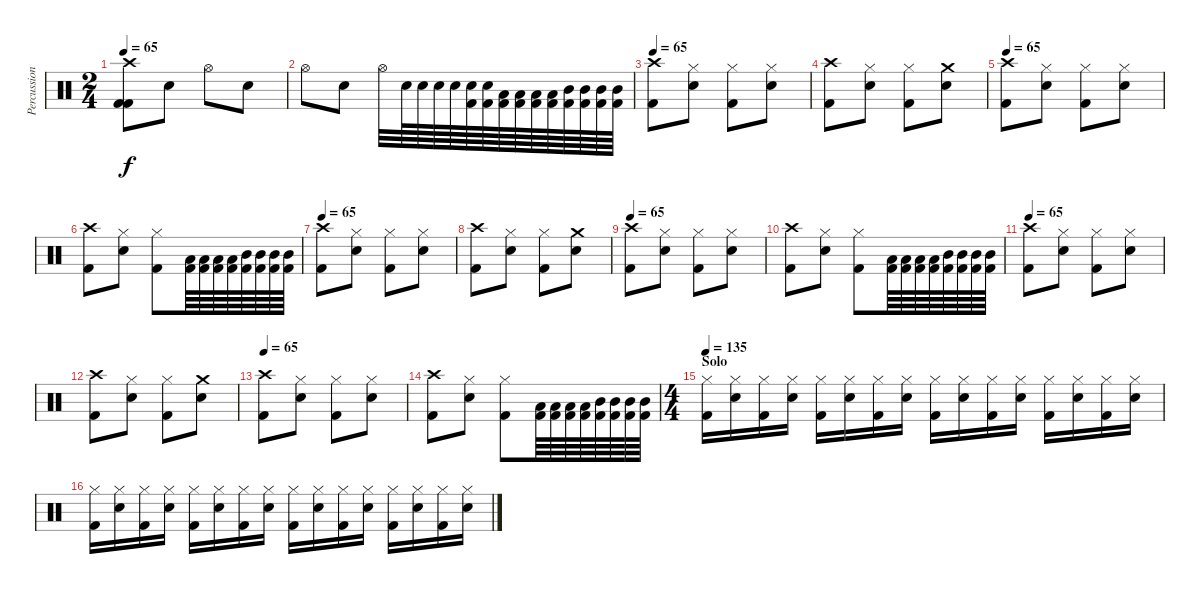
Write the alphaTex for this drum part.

\track ("Percussion" "Percussion") {instrument percussion}
\staff {score}
\articulation defaults
\ts (2 4)
\tempo 65
\clef neutral
\ks c
("Crash high (hit)" "Kick (hit) 2" "Kick (hit) 2").8{dy f} "Snare (hit)"{x}.8 "Hi-Hat (open)".8 "Snare (hit)"{x}.8 |
"Hi-Hat (open)".8 "Snare (hit)"{x}.8 "Hi-Hat (open)".32 "Snare (hit)"{x}.64 "Snare (hit)"{x}.64 "Snare (hit)"{x}.64 "Snare (hit)"{x}.64 ("Electric Snare (hit)" "Kick (hit) 2").64 ("Electric Snare (hit)" "Kick (hit) 2").64 ("Low Tom (hit)" "Kick (hit) 2").64 ("Low Tom (hit)" "Kick (hit) 2").64 ("Low Tom (hit)" "Kick (hit) 2").64 ("Low Tom (hit)" "Kick (hit) 2").64 ("Mid Tom (hit)" "Kick (hit) 2").64 ("Mid Tom (hit)" "Kick (hit) 2").64 ("Mid Tom (hit)" "Kick (hit) 2").64 ("Mid Tom (hit)" "Kick (hit) 2").64 |
\tempo 65
("Crash high (hit)" "Kick (hit) 2").8 ("Hi-Hat (closed)" "Electric Snare (hit)").8 ("Hi-Hat (closed)" "Kick (hit) 2").8 ("Hi-Hat (closed)" "Electric Snare (hit)").8 |
("Crash high (hit)" "Kick (hit) 2").8 ("Hi-Hat (closed)" "Electric Snare (hit)").8 ("Hi-Hat (closed)" "Kick (hit) 2").8 ("Crash medium (hit)" "Electric Snare (hit)").8 |
\tempo 65
("Crash high (hit)" "Kick (hit) 2").8 ("Hi-Hat (closed)" "Electric Snare (hit)").8 ("Hi-Hat (closed)" "Kick (hit) 2").8 ("Hi-Hat (closed)" "Electric Snare (hit)").8 |
("Crash high (hit)" "Kick (hit) 2").8 ("Hi-Hat (closed)" "Electric Snare (hit)").8 ("Hi-Hat (closed)" "Kick (hit) 2").8 ("Low Tom (hit)" "Kick (hit) 2").64 ("Low Tom (hit)" "Kick (hit) 2").64 ("Low Tom (hit)" "Kick (hit) 2").64 ("Low Tom (hit)" "Kick (hit) 2").64 ("Mid Tom (hit)" "Kick (hit) 2").64 ("Mid Tom (hit)" "Kick (hit) 2").64 ("Mid Tom (hit)" "Kick (hit) 2").64 ("Mid Tom (hit)" "Kick (hit) 2").64 |
\tempo 65
("Crash high (hit)" "Kick (hit) 2").8 ("Hi-Hat (closed)" "Electric Snare (hit)").8 ("Hi-Hat (closed)" "Kick (hit) 2").8 ("Hi-Hat (closed)" "Electric Snare (hit)").8 |
("Crash high (hit)" "Kick (hit) 2").8 ("Hi-Hat (closed)" "Electric Snare (hit)").8 ("Hi-Hat (closed)" "Kick (hit) 2").8 ("Crash medium (hit)" "Electric Snare (hit)").8 |
\tempo 65
("Crash high (hit)" "Kick (hit) 2").8 ("Hi-Hat (closed)" "Electric Snare (hit)").8 ("Hi-Hat (closed)" "Kick (hit) 2").8 ("Hi-Hat (closed)" "Electric Snare (hit)").8 |
("Crash high (hit)" "Kick (hit) 2").8 ("Hi-Hat (closed)" "Electric Snare (hit)").8 ("Hi-Hat (closed)" "Kick (hit) 2").8 ("Low Tom (hit)" "Kick (hit) 2").64 ("Low Tom (hit)" "Kick (hit) 2").64 ("Low Tom (hit)" "Kick (hit) 2").64 ("Low Tom (hit)" "Kick (hit) 2").64 ("Mid Tom (hit)" "Kick (hit) 2").64 ("Mid Tom (hit)" "Kick (hit) 2").64 ("Mid Tom (hit)" "Kick (hit) 2").64 ("Mid Tom (hit)" "Kick (hit) 2").64 |
\tempo 65
("Crash high (hit)" "Kick (hit) 2").8 ("Hi-Hat (closed)" "Electric Snare (hit)").8 ("Hi-Hat (closed)" "Kick (hit) 2").8 ("Hi-Hat (closed)" "Electric Snare (hit)").8 |
("Crash high (hit)" "Kick (hit) 2").8 ("Hi-Hat (closed)" "Electric Snare (hit)").8 ("Hi-Hat (closed)" "Kick (hit) 2").8 ("Crash medium (hit)" "Electric Snare (hit)").8 |
\tempo 65
("Crash high (hit)" "Kick (hit) 2").8 ("Hi-Hat (closed)" "Electric Snare (hit)").8 ("Hi-Hat (closed)" "Kick (hit) 2").8 ("Hi-Hat (closed)" "Electric Snare (hit)").8 |
("Crash high (hit)" "Kick (hit) 2").8 ("Hi-Hat (closed)" "Electric Snare (hit)").8 ("Hi-Hat (closed)" "Kick (hit) 2").8 ("Low Tom (hit)" "Kick (hit) 2").64 ("Low Tom (hit)" "Kick (hit) 2").64 ("Low Tom (hit)" "Kick (hit) 2").64 ("Low Tom (hit)" "Kick (hit) 2").64 ("Mid Tom (hit)" "Kick (hit) 2").64 ("Mid Tom (hit)" "Kick (hit) 2").64 ("Mid Tom (hit)" "Kick (hit) 2").64 ("Mid Tom (hit)" "Kick (hit) 2").64 |
\ts (4 4)
\section ("" "Solo")
\tempo 75
\tempo 135
("Hi-Hat (closed)" "Kick (hit) 2").16 ("Hi-Hat (closed)" "Electric Snare (hit)").16 ("Hi-Hat (closed)" "Kick (hit) 2").16 ("Hi-Hat (closed)" "Electric Snare (hit)").16 ("Hi-Hat (closed)" "Kick (hit) 2").16 ("Hi-Hat (closed)" "Electric Snare (hit)").16 ("Hi-Hat (closed)" "Kick (hit) 2").16 ("Hi-Hat (closed)" "Electric Snare (hit)").16 ("Hi-Hat (closed)" "Kick (hit) 2").16 ("Hi-Hat (closed)" "Electric Snare (hit)").16 ("Hi-Hat (closed)" "Kick (hit) 2").16 ("Hi-Hat (closed)" "Electric Snare (hit)").16 ("Hi-Hat (closed)" "Kick (hit) 2").16 ("Hi-Hat (closed)" "Electric Snare (hit)").16 ("Hi-Hat (closed)" "Kick (hit) 2").16 ("Hi-Hat (closed)" "Electric Snare (hit)").16 |
("Hi-Hat (closed)" "Kick (hit) 2").16 ("Hi-Hat (closed)" "Electric Snare (hit)").16 ("Hi-Hat (closed)" "Kick (hit) 2").16 ("Hi-Hat (closed)" "Electric Snare (hit)").16 ("Hi-Hat (closed)" "Kick (hit) 2").16 ("Hi-Hat (closed)" "Electric Snare (hit)").16 ("Hi-Hat (closed)" "Kick (hit) 2").16 ("Hi-Hat (closed)" "Electric Snare (hit)").16 ("Hi-Hat (closed)" "Kick (hit) 2").16 ("Hi-Hat (closed)" "Electric Snare (hit)").16 ("Hi-Hat (closed)" "Kick (hit) 2").16 ("Hi-Hat (closed)" "Electric Snare (hit)").16 ("Hi-Hat (closed)" "Kick (hit) 2").16 ("Hi-Hat (closed)" "Electric Snare (hit)").16 ("Hi-Hat (closed)" "Kick (hit) 2").16 ("Hi-Hat (closed)" "Electric Snare (hit)").16
